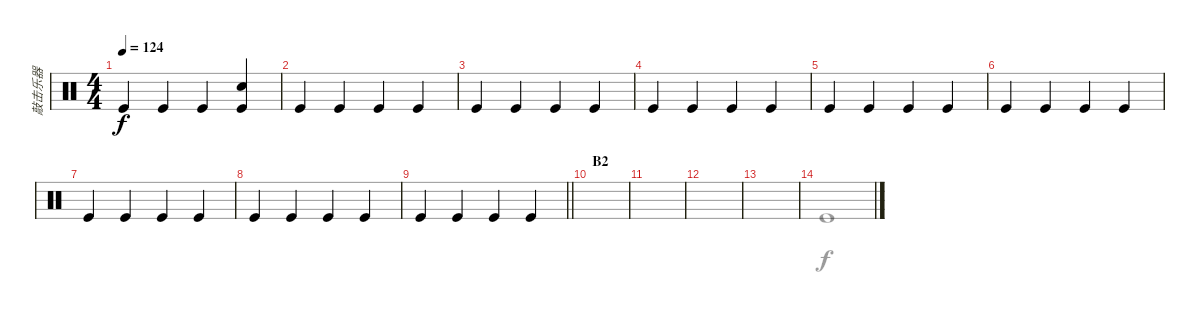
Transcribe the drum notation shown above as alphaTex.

\track ("敲击乐器" "敲击乐器") {instrument percussion}
\staff {score}
\articulation defaults
\voice
\ts (4 4)
\tempo 124
\clef neutral
\ks c "Kick (hit)".4{dy f} "Kick (hit)".4 "Kick (hit)".4
("Snare (hit) 2" "Kick (hit)").4 |
"Kick (hit)".4 "Kick (hit)".4 "Kick (hit)".4 "Kick (hit)".4 |
"Kick (hit)".4 "Kick (hit)".4 "Kick (hit)".4 "Kick (hit)".4 |
"Kick (hit)".4 "Kick (hit)".4 "Kick (hit)".4 "Kick (hit)".4 |
"Kick (hit)".4 "Kick (hit)".4 "Kick (hit)".4 "Kick (hit)".4 |
"Kick (hit)".4 "Kick (hit)".4 "Kick (hit)".4 "Kick (hit)".4 |
"Kick (hit)".4 "Kick (hit)".4 "Kick (hit)".4 "Kick (hit)".4 |
"Kick (hit)".4 "Kick (hit)".4 "Kick (hit)".4 "Kick (hit)".4 |
\barLineRight lightlight "Kick (hit)".4 "Kick (hit)".4 "Kick (hit)".4 "Kick (hit)".4
|
\section ("" "B2")
|
|
|
|
|
|
\voice
\clef neutral
\ottava regular
\simile none
\ks c
|
|
|
|
|
|
|
|
\barLineRight lightlight
|
|
|
|
|
"Kick (hit)".1 |
|
